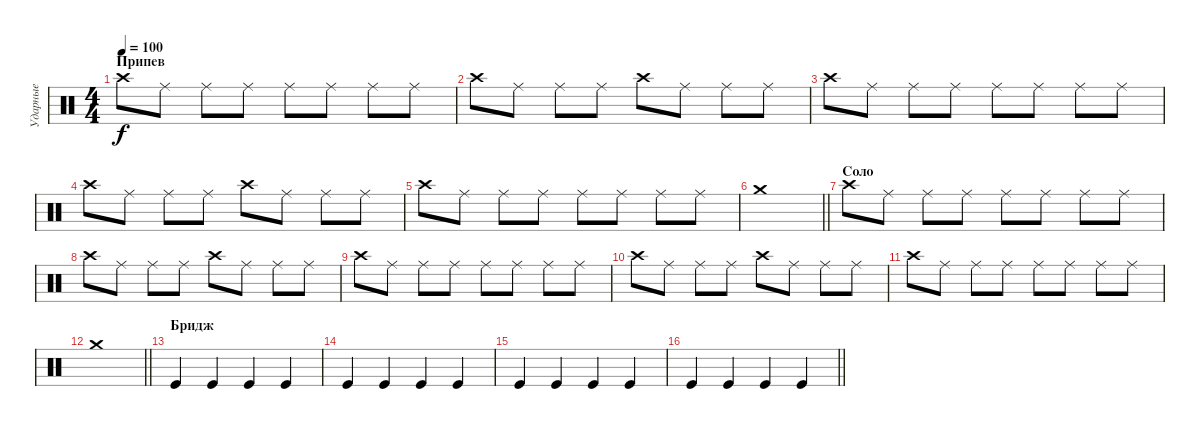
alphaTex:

\track ("Ударные" "Ударные") {instrument percussion}
\staff {score}
\articulation defaults
\ts (4 4)
\section ("" "Припев")
\tempo 100
\clef neutral
\ks c "Crash high (hit)".8{dy f} "Ride (middle)".8 "Ride (middle)".8 "Ride (middle)".8 "Ride (middle)".8 "Ride (middle)".8 "Ride (middle)".8 "Ride (middle)".8
|
"Crash high (hit)".8 "Ride (middle)".8 "Ride (middle)".8 "Ride (middle)".8 "Crash high (hit)".8 "Ride (middle)".8 "Ride (middle)".8 "Ride (middle)".8 |
"Crash high (hit)".8 "Ride (middle)".8 "Ride (middle)".8 "Ride (middle)".8 "Ride (middle)".8 "Ride (middle)".8 "Ride (middle)".8 "Ride (middle)".8 |
"Crash high (hit)".8 "Ride (middle)".8 "Ride (middle)".8 "Ride (middle)".8 "Crash high (hit)".8 "Ride (middle)".8 "Ride (middle)".8 "Ride (middle)".8 |
"Crash high (hit)".8 "Ride (middle)".8 "Ride (middle)".8 "Ride (middle)".8 "Ride (middle)".8 "Ride (middle)".8 "Ride (middle)".8 "Ride (middle)".8 |
\barLineRight lightlight "Crash medium (hit)".1
|
\section ("" "Соло")
"Crash high (hit)".8 "Ride (middle)".8 "Ride (middle)".8 "Ride (middle)".8 "Ride (middle)".8 "Ride (middle)".8 "Ride (middle)".8 "Ride (middle)".8 |
"Crash high (hit)".8 "Ride (middle)".8 "Ride (middle)".8 "Ride (middle)".8 "Crash high (hit)".8 "Ride (middle)".8 "Ride (middle)".8 "Ride (middle)".8 |
"Crash high (hit)".8 "Ride (middle)".8 "Ride (middle)".8 "Ride (middle)".8 "Ride (middle)".8 "Ride (middle)".8 "Ride (middle)".8 "Ride (middle)".8 |
"Crash high (hit)".8 "Ride (middle)".8 "Ride (middle)".8 "Ride (middle)".8 "Crash high (hit)".8 "Ride (middle)".8 "Ride (middle)".8 "Ride (middle)".8 |
"Crash high (hit)".8 "Ride (middle)".8 "Ride (middle)".8 "Ride (middle)".8 "Ride (middle)".8 "Ride (middle)".8 "Ride (middle)".8 "Ride (middle)".8 |
\barLineRight lightlight "Crash medium (hit)".1
|
\section ("" "Бридж")
"Kick (hit)".4 "Kick (hit)".4 "Kick (hit)".4 "Kick (hit)".4 |
"Kick (hit)".4 "Kick (hit)".4 "Kick (hit)".4 "Kick (hit)".4 |
"Kick (hit)".4 "Kick (hit)".4 "Kick (hit)".4 "Kick (hit)".4 |
\barLineRight lightlight "Kick (hit)".4 "Kick (hit)".4 "Kick (hit)".4 "Kick (hit)".4
